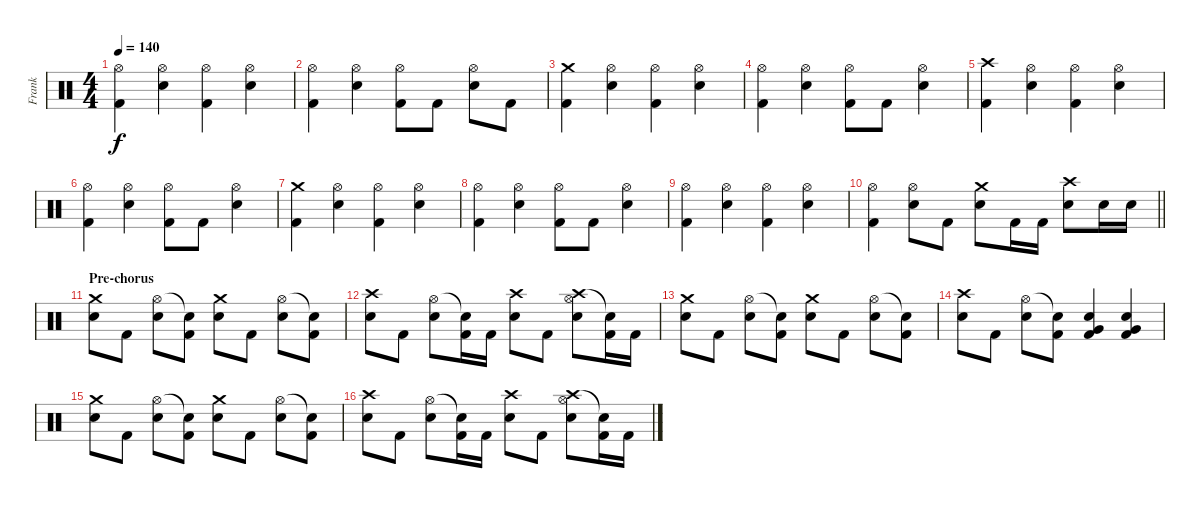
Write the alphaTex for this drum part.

\track ("Frank" "Frank") {instrument percussion}
\staff {score}
\articulation defaults
\ts (4 4)
\tempo 140
\clef neutral
\ks c
("Hi-Hat (open)" "Kick (hit) 2").4{dy f} ("Hi-Hat (open)" "Snare (hit) 2").4 ("Hi-Hat (open)" "Kick (hit) 2").4 ("Hi-Hat (open)" "Snare (hit) 2").4 |
("Hi-Hat (open)" "Kick (hit) 2").4 ("Hi-Hat (open)" "Snare (hit) 2").4 ("Hi-Hat (open)" "Kick (hit) 2").8 "Kick (hit) 2".8 ("Hi-Hat (open)" "Snare (hit) 2").8 "Kick (hit) 2".8 |
("Crash medium (hit)" "Kick (hit) 2").4 ("Hi-Hat (open)" "Snare (hit) 2").4 ("Hi-Hat (open)" "Kick (hit) 2").4 ("Hi-Hat (open)" "Snare (hit) 2").4 |
("Hi-Hat (open)" "Kick (hit) 2").4 ("Hi-Hat (open)" "Snare (hit) 2").4 ("Hi-Hat (open)" "Kick (hit) 2").8 "Kick (hit) 2".8 ("Hi-Hat (open)" "Snare (hit) 2").4 |
("Crash high (hit)" "Kick (hit) 2").4 ("Hi-Hat (open)" "Snare (hit) 2").4 ("Hi-Hat (open)" "Kick (hit) 2").4 ("Hi-Hat (open)" "Snare (hit) 2").4 |
("Hi-Hat (open)" "Kick (hit) 2").4 ("Hi-Hat (open)" "Snare (hit) 2").4 ("Hi-Hat (open)" "Kick (hit) 2").8 "Kick (hit) 2".8 ("Hi-Hat (open)" "Snare (hit) 2").4 |
("Crash medium (hit)" "Kick (hit) 2").4 ("Hi-Hat (open)" "Snare (hit) 2").4 ("Hi-Hat (open)" "Kick (hit) 2").4 ("Hi-Hat (open)" "Snare (hit) 2").4 |
("Hi-Hat (open)" "Kick (hit) 2").4 ("Hi-Hat (open)" "Snare (hit) 2").4 ("Hi-Hat (open)" "Kick (hit) 2").8 "Kick (hit) 2".8 ("Hi-Hat (open)" "Snare (hit) 2").4 |
("Hi-Hat (open)" "Kick (hit) 2").4 ("Hi-Hat (open)" "Snare (hit) 2").4 ("Hi-Hat (open)" "Kick (hit) 2").4 ("Hi-Hat (open)" "Snare (hit) 2").4 |
\barLineRight lightlight
("Hi-Hat (open)" "Kick (hit) 2").4 ("Hi-Hat (open)" "Snare (hit) 2").8 "Kick (hit) 2".8 ("Crash medium (hit)" "Snare (hit) 2").8 "Kick (hit) 2".16 "Kick (hit) 2".16 ("Crash high (hit)" "Snare (hit) 2").8 "Snare (hit) 2".16 "Snare (hit) 2".16 |
\section ("" "Pre-chorus")
("Crash medium (hit)" "Snare (hit) 2").8 "Kick (hit) 2".8 ("Hi-Hat (open)" "Snare (hit) 2").8 ("Snare (hit)"{t} "Kick (hit) 2").8 ("Crash medium (hit)" "Snare (hit) 2").8 "Kick (hit) 2".8 ("Hi-Hat (open)" "Snare (hit) 2").8 ("Snare (hit)"{t} "Kick (hit) 2").8 |
("Crash high (hit)" "Snare (hit) 2").8 "Kick (hit) 2".8 ("Hi-Hat (open)" "Snare (hit) 2").8 ("Snare (hit)"{t} "Kick (hit) 2").16 "Kick (hit) 2".16 ("Crash high (hit)" "Snare (hit) 2").8 "Kick (hit) 2".8 ("Crash high (hit)" "Hi-Hat (open)" "Snare (hit) 2").8 ("Snare (hit)"{t} "Kick (hit) 2").16 "Kick (hit) 2".16 |
("Crash medium (hit)" "Snare (hit) 2").8 "Kick (hit) 2".8 ("Hi-Hat (open)" "Snare (hit) 2").8 ("Snare (hit)"{t} "Kick (hit) 2").8 ("Crash medium (hit)" "Snare (hit) 2").8 "Kick (hit) 2".8 ("Hi-Hat (open)" "Snare (hit) 2").8 ("Snare (hit)"{t} "Kick (hit) 2").8 |
("Crash high (hit)" "Snare (hit) 2").8 "Kick (hit) 2".8 ("Hi-Hat (open)" "Snare (hit) 2").8 ("Snare (hit)"{t} "Kick (hit) 2").8 ("Very Low Tom (hit)" "Snare (hit) 2" "Kick (hit) 2").4 ("Very Low Tom (hit)" "Snare (hit) 2" "Kick (hit) 2").4 |
("Crash medium (hit)" "Snare (hit) 2").8 "Kick (hit) 2".8 ("Hi-Hat (open)" "Snare (hit) 2").8 ("Snare (hit)"{t} "Kick (hit) 2").8 ("Crash medium (hit)" "Snare (hit) 2").8 "Kick (hit) 2".8 ("Hi-Hat (open)" "Snare (hit) 2").8 ("Snare (hit)"{t} "Kick (hit) 2").8 |
("Crash high (hit)" "Snare (hit) 2").8 "Kick (hit) 2".8 ("Hi-Hat (open)" "Snare (hit) 2").8 ("Snare (hit)"{t} "Kick (hit) 2").16 "Kick (hit) 2".16 ("Crash high (hit)" "Snare (hit) 2").8 "Kick (hit) 2".8 ("Crash high (hit)" "Hi-Hat (open)" "Snare (hit) 2").8 ("Snare (hit)"{t} "Kick (hit) 2").16 "Kick (hit) 2".16
